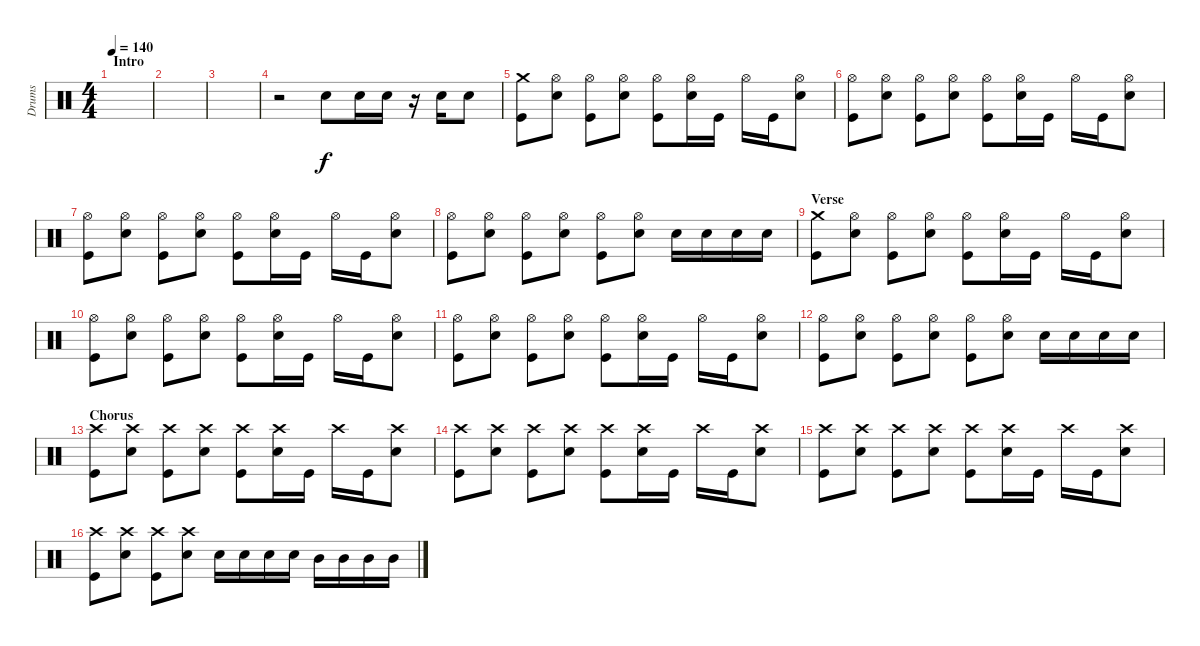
\track ("Drums" "Drums") {instrument percussion}
\staff {score}
\articulation defaults
\ts (4 4)
\section ("" "Intro")
\tempo 140
\clef neutral
\ks c
|
|
|
r.2 "Snare (hit) 2".8 "Snare (hit) 2".16 "Snare (hit) 2".16 r.16 "Snare (hit) 2".16 "Snare (hit) 2".8 |
("Crash medium (hit)" "Kick (hit)").8 ("Hi-Hat (open)" "Snare (hit) 2").8 ("Hi-Hat (open)" "Kick (hit)").8 ("Hi-Hat (open)" "Snare (hit) 2").8 ("Hi-Hat (open)" "Kick (hit)").8 ("Hi-Hat (open)" "Snare (hit) 2").16 "Kick (hit)".16 "Hi-Hat (open)".16 "Kick (hit)".16 ("Hi-Hat (open)" "Snare (hit) 2").8 |
("Hi-Hat (open)" "Kick (hit)").8 ("Hi-Hat (open)" "Snare (hit) 2").8 ("Hi-Hat (open)" "Kick (hit)").8 ("Hi-Hat (open)" "Snare (hit) 2").8 ("Hi-Hat (open)" "Kick (hit)").8 ("Hi-Hat (open)" "Snare (hit) 2").16 "Kick (hit)".16 "Hi-Hat (open)".16 "Kick (hit)".16 ("Hi-Hat (open)" "Snare (hit) 2").8 |
("Hi-Hat (open)" "Kick (hit)").8 ("Hi-Hat (open)" "Snare (hit) 2").8 ("Hi-Hat (open)" "Kick (hit)").8 ("Hi-Hat (open)" "Snare (hit) 2").8 ("Hi-Hat (open)" "Kick (hit)").8 ("Hi-Hat (open)" "Snare (hit) 2").16 "Kick (hit)".16 "Hi-Hat (open)".16 "Kick (hit)".16 ("Hi-Hat (open)" "Snare (hit) 2").8 |
("Hi-Hat (open)" "Kick (hit)").8 ("Hi-Hat (open)" "Snare (hit) 2").8 ("Hi-Hat (open)" "Kick (hit)").8 ("Hi-Hat (open)" "Snare (hit) 2").8 ("Hi-Hat (open)" "Kick (hit)").8 ("Hi-Hat (open)" "Snare (hit) 2").8 "Snare (hit) 2".16 "Snare (hit) 2".16 "Snare (hit) 2".16 "Snare (hit) 2".16 |
\section ("" "Verse")
("Crash medium (hit)" "Kick (hit)").8 ("Hi-Hat (open)" "Snare (hit) 2").8 ("Hi-Hat (open)" "Kick (hit)").8 ("Hi-Hat (open)" "Snare (hit) 2").8 ("Hi-Hat (open)" "Kick (hit)").8 ("Hi-Hat (open)" "Snare (hit) 2").16 "Kick (hit)".16 "Hi-Hat (open)".16 "Kick (hit)".16 ("Hi-Hat (open)" "Snare (hit) 2").8 |
("Hi-Hat (open)" "Kick (hit)").8 ("Hi-Hat (open)" "Snare (hit) 2").8 ("Hi-Hat (open)" "Kick (hit)").8 ("Hi-Hat (open)" "Snare (hit) 2").8 ("Hi-Hat (open)" "Kick (hit)").8 ("Hi-Hat (open)" "Snare (hit) 2").16 "Kick (hit)".16 "Hi-Hat (open)".16 "Kick (hit)".16 ("Hi-Hat (open)" "Snare (hit) 2").8 |
("Hi-Hat (open)" "Kick (hit)").8 ("Hi-Hat (open)" "Snare (hit) 2").8 ("Hi-Hat (open)" "Kick (hit)").8 ("Hi-Hat (open)" "Snare (hit) 2").8 ("Hi-Hat (open)" "Kick (hit)").8 ("Hi-Hat (open)" "Snare (hit) 2").16 "Kick (hit)".16 "Hi-Hat (open)".16 "Kick (hit)".16 ("Hi-Hat (open)" "Snare (hit) 2").8 |
("Hi-Hat (open)" "Kick (hit)").8 ("Hi-Hat (open)" "Snare (hit) 2").8 ("Hi-Hat (open)" "Kick (hit)").8 ("Hi-Hat (open)" "Snare (hit) 2").8 ("Hi-Hat (open)" "Kick (hit)").8 ("Hi-Hat (open)" "Snare (hit) 2").8 "Snare (hit) 2".16 "Snare (hit) 2".16 "Snare (hit) 2".16 "Snare (hit) 2".16 |
\section ("" "Chorus")
("Crash high (hit)" "Kick (hit)").8 ("Crash high (hit)" "Snare (hit) 2").8 ("Crash high (hit)" "Kick (hit)").8 ("Crash high (hit)" "Snare (hit) 2").8 ("Crash high (hit)" "Kick (hit)").8 ("Crash high (hit)" "Snare (hit) 2").16 "Kick (hit)".16 "Crash high (hit)".16 "Kick (hit)".16 ("Crash high (hit)" "Snare (hit) 2").8 |
("Crash high (hit)" "Kick (hit)").8 ("Crash high (hit)" "Snare (hit) 2").8 ("Crash high (hit)" "Kick (hit)").8 ("Crash high (hit)" "Snare (hit) 2").8 ("Crash high (hit)" "Kick (hit)").8 ("Crash high (hit)" "Snare (hit) 2").16 "Kick (hit)".16 "Crash high (hit)".16 "Kick (hit)".16 ("Crash high (hit)" "Snare (hit) 2").8 |
("Crash high (hit)" "Kick (hit)").8 ("Crash high (hit)" "Snare (hit) 2").8 ("Crash high (hit)" "Kick (hit)").8 ("Crash high (hit)" "Snare (hit) 2").8 ("Crash high (hit)" "Kick (hit)").8 ("Crash high (hit)" "Snare (hit) 2").16 "Kick (hit)".16 "Crash high (hit)".16 "Kick (hit)".16 ("Crash high (hit)" "Snare (hit) 2").8 |
("Crash high (hit)" "Kick (hit)").8 ("Crash high (hit)" "Snare (hit) 2").8 ("Crash high (hit)" "Kick (hit)").8 ("Crash high (hit)" "Snare (hit) 2").8 "Snare (hit) 2".16 "Snare (hit) 2".16 "Snare (hit) 2".16 "Snare (hit) 2".16 "Mid Tom (hit)".16 "Mid Tom (hit)".16 "Mid Tom (hit)".16 "Mid Tom (hit)".16
